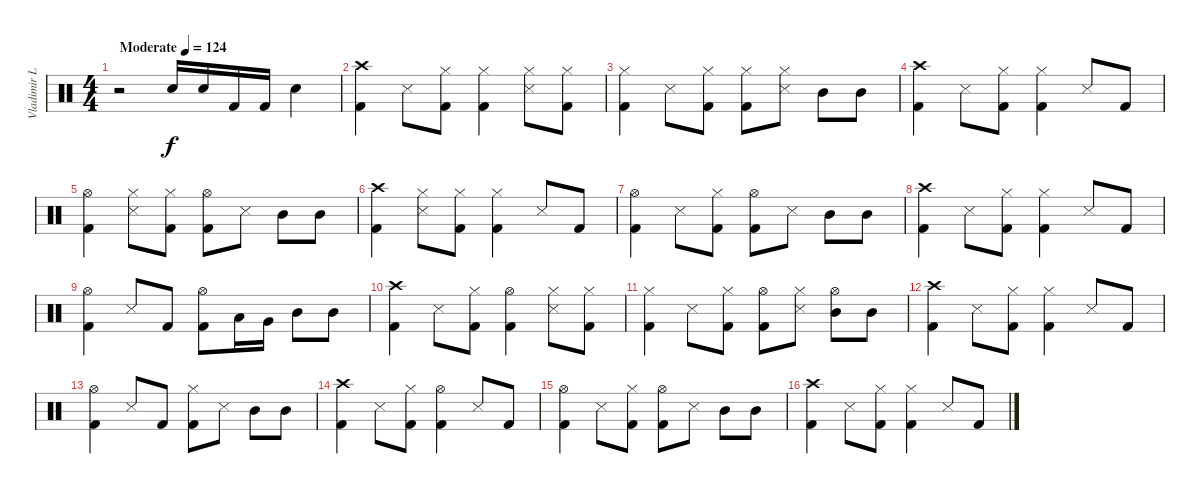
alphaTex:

\track ("Vladimir L." "Vladimir L") {instrument percussion}
\staff {score}
\articulation defaults
\ts (4 4)
\tempo (124 "Moderate")
\clef neutral
\ks c
r.2{dy f} "Electric Snare (hit)".16 "Electric Snare (hit)".16 "Kick (hit) 2".16 "Kick (hit) 2".16 "Electric Snare (hit)".4 |
("Kick (hit) 2" "Crash high (hit)").4 "Snare (side stick) 3".8 ("Kick (hit) 2" "Hi-Hat (closed)").8 ("Kick (hit) 2" "Hi-Hat (closed)").4 ("Snare (side stick) 3" "Hi-Hat (closed)").8 ("Kick (hit) 2" "Hi-Hat (closed)").8 |
("Kick (hit) 2" "Hi-Hat (closed)").4 "Snare (side stick) 3".8 ("Kick (hit) 2" "Hi-Hat (closed)").8 ("Kick (hit) 2" "Hi-Hat (closed)").8 ("Snare (side stick) 3" "Hi-Hat (closed)").8 "Mid Tom (hit)".8 "Mid Tom (hit)".8 |
("Kick (hit) 2" "Crash high (hit)").4 "Snare (side stick) 3".8 ("Kick (hit) 2" "Hi-Hat (closed)").8 ("Kick (hit) 2" "Hi-Hat (closed)").4 "Snare (side stick) 3".8 "Kick (hit) 2".8 |
("Kick (hit) 2" "Hi-Hat (open)").4 ("Snare (side stick) 3" "Hi-Hat (closed)").8 ("Kick (hit) 2" "Hi-Hat (closed)").8 ("Kick (hit) 2" "Hi-Hat (open)").8 "Snare (side stick) 3".8 "Mid Tom (hit)".8 "Mid Tom (hit)".8 |
("Kick (hit) 2" "Crash high (hit)").4 ("Snare (side stick) 3" "Hi-Hat (closed)").8 ("Kick (hit) 2" "Hi-Hat (closed)").8 ("Kick (hit) 2" "Hi-Hat (closed)").4 "Snare (side stick) 3".8 "Kick (hit) 2".8 |
("Kick (hit) 2" "Hi-Hat (open)").4 "Snare (side stick) 3".8 ("Kick (hit) 2" "Hi-Hat (closed)").8 ("Kick (hit) 2" "Hi-Hat (open)").8 "Snare (side stick) 3".8 "Mid Tom (hit)".8 "Mid Tom (hit)".8 |
("Kick (hit) 2" "Crash high (hit)").4 "Snare (side stick) 3".8 ("Kick (hit) 2" "Hi-Hat (closed)").8 ("Kick (hit) 2" "Hi-Hat (closed)").4 "Snare (side stick) 3".8 "Kick (hit) 2".8 |
("Kick (hit) 2" "Hi-Hat (open)").4 "Snare (side stick) 3".8 "Kick (hit) 2".8 ("Kick (hit) 2" "Hi-Hat (open)").8 "Low Floor Tom (hit)".16 "Very Low Tom (hit)".16 "Mid Tom (hit)".8 "Mid Tom (hit)".8 |
("Kick (hit) 2" "Crash high (hit)").4 "Snare (side stick) 3".8 ("Kick (hit) 2" "Hi-Hat (closed)").8 ("Kick (hit) 2" "Hi-Hat (open)").4 ("Snare (side stick) 3" "Hi-Hat (closed)").8 ("Kick (hit) 2" "Hi-Hat (closed)").8 |
("Kick (hit) 2" "Hi-Hat (closed)").4 "Snare (side stick) 3".8 ("Kick (hit) 2" "Hi-Hat (closed)").8 ("Kick (hit) 2" "Hi-Hat (open)").8 ("Snare (side stick) 3" "Hi-Hat (closed)").8 ("Mid Tom (hit)" "Hi-Hat (open)").8 "Mid Tom (hit)".8 |
("Kick (hit) 2" "Crash high (hit)").4 "Snare (side stick) 3".8 ("Kick (hit) 2" "Hi-Hat (closed)").8 ("Kick (hit) 2" "Hi-Hat (closed)").4 "Snare (side stick) 3".8 "Kick (hit) 2".8 |
("Kick (hit) 2" "Hi-Hat (open)").4 "Snare (side stick) 3".8 "Kick (hit) 2".8 ("Kick (hit) 2" "Hi-Hat (closed)").8 "Snare (side stick) 3".8 "Mid Tom (hit)".8 "Mid Tom (hit)".8 |
("Kick (hit) 2" "Crash high (hit)").4 "Snare (side stick) 3".8 ("Kick (hit) 2" "Hi-Hat (closed)").8 ("Kick (hit) 2" "Hi-Hat (open)").4 "Snare (side stick) 3".8 "Kick (hit) 2".8 |
("Kick (hit) 2" "Hi-Hat (open)").4 "Snare (side stick) 3".8 ("Kick (hit) 2" "Hi-Hat (closed)").8 ("Kick (hit) 2" "Hi-Hat (open)").8 "Snare (side stick) 3".8 "Mid Tom (hit)".8 "Mid Tom (hit)".8 |
("Kick (hit) 2" "Crash high (hit)").4 "Snare (side stick) 3".8 ("Kick (hit) 2" "Hi-Hat (closed)").8 ("Kick (hit) 2" "Hi-Hat (closed)").4 "Snare (side stick) 3".8 "Kick (hit) 2".8
